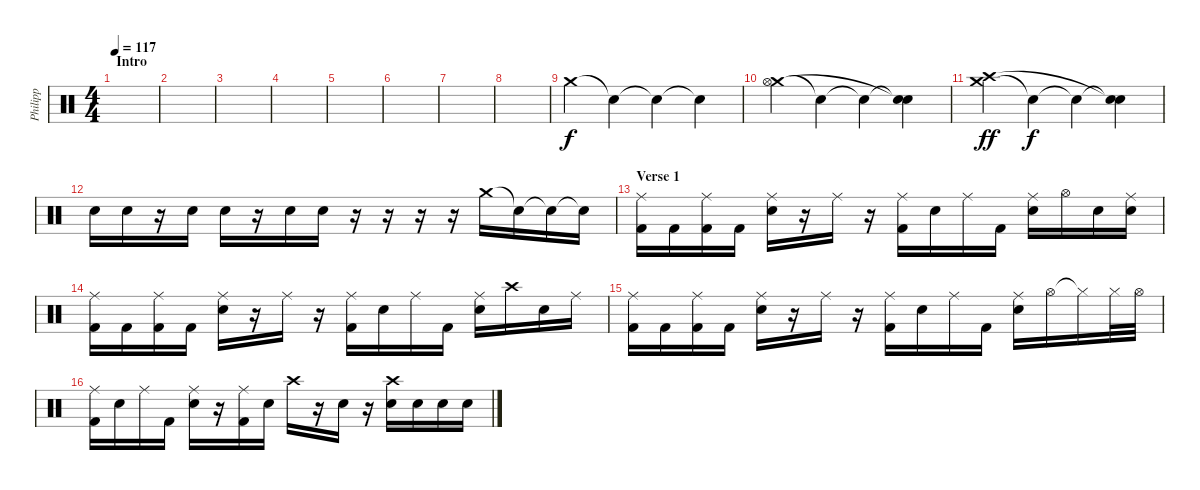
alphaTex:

\track ("Philipp" "Philipp") {instrument percussion}
\staff {score}
\articulation defaults
\ts (4 4)
\section ("" "Intro")
\tempo 117
\clef neutral
\ks c
|
|
|
|
|
|
|
|
"Crash medium (hit)".4 "Snare (hit)"{t}.4{dy f} "Snare (hit)"{t}.4 "Snare (hit)"{t}.4 |
("Crash medium (hit)" "Hi-Hat (open)").4 "Snare (hit)"{t}.4 "Snare (hit)"{t}.4 ("Snare (hit)"{t} "Snare (hit)"{t}).4 |
("Crash medium (hit)" "Crash high (hit)").4{dy ff} "Snare (hit)"{t}.4{dy f} "Snare (hit)"{t}.4 ("Snare (hit)"{t} "Snare (hit)"{t}).4 |
"Electric Snare (hit)".16 "Electric Snare (hit)".16 r.16 "Electric Snare (hit)".16 "Electric Snare (hit)".16 r.16 "Electric Snare (hit)".16 "Electric Snare (hit)".16 r.16 r.16 r.16 r.16 "Crash medium (hit)".16 "Snare (hit)"{t}.16 "Snare (hit)"{t}.16 "Snare (hit)"{t}.16 |
\section ("" "Verse 1")
("Ride (middle)" "Kick (hit) 2").16 "Kick (hit) 2".16 ("Ride (middle)" "Kick (hit) 2").16 "Kick (hit) 2".16 ("Ride (middle)" "Electric Snare (hit)").16 r.16 "Ride (middle)".16 r.16 ("Ride (middle)" "Kick (hit) 2").16 "Electric Snare (hit)".16 "Ride (middle)".16 "Kick (hit) 2".16 ("Ride (middle)" "Electric Snare (hit)").16 "Hi-Hat (open)".16 "Electric Snare (hit)".16 ("Ride (middle)" "Electric Snare (hit)").16 |
("Ride (middle)" "Kick (hit) 2").16 "Kick (hit) 2".16 ("Ride (middle)" "Kick (hit) 2").16 "Kick (hit) 2".16 ("Ride (middle)" "Electric Snare (hit)").16 r.16 "Ride (middle)".16 r.16 ("Ride (middle)" "Kick (hit) 2").16 "Electric Snare (hit)".16 "Ride (middle)".16 "Kick (hit) 2".16 ("Ride (middle)" "Electric Snare (hit)").16 "Crash high (hit)".16 "Electric Snare (hit)".16 "Ride (middle)".16 |
("Ride (middle)" "Kick (hit) 2").16 "Kick (hit) 2".16 ("Ride (middle)" "Kick (hit) 2").16 "Kick (hit) 2".16 ("Ride (middle)" "Electric Snare (hit)").16 r.16 "Ride (middle)".16 r.16 ("Ride (middle)" "Kick (hit) 2").16 "Electric Snare (hit)".16 "Ride (middle)".16 "Kick (hit) 2".16 ("Ride (middle)" "Electric Snare (hit)").16 "Hi-Hat (open)".16 "Hi-Hat (closed)"{t}.16 "Hi-Hat (closed)".32 "Hi-Hat (open)".32 |
("Ride (middle)" "Kick (hit) 2").16 "Electric Snare (hit)".16 "Ride (middle)".16 "Kick (hit) 2".16 ("Ride (middle)" "Electric Snare (hit)").16 r.16 ("Ride (middle)" "Kick (hit) 2").16 "Electric Snare (hit)".16 "Crash high (hit)".16 r.16 "Electric Snare (hit)".16 r.16 ("Crash high (hit)" "Electric Snare (hit)").16 "Electric Snare (hit)".16 "Electric Snare (hit)".16 "Electric Snare (hit)".16
